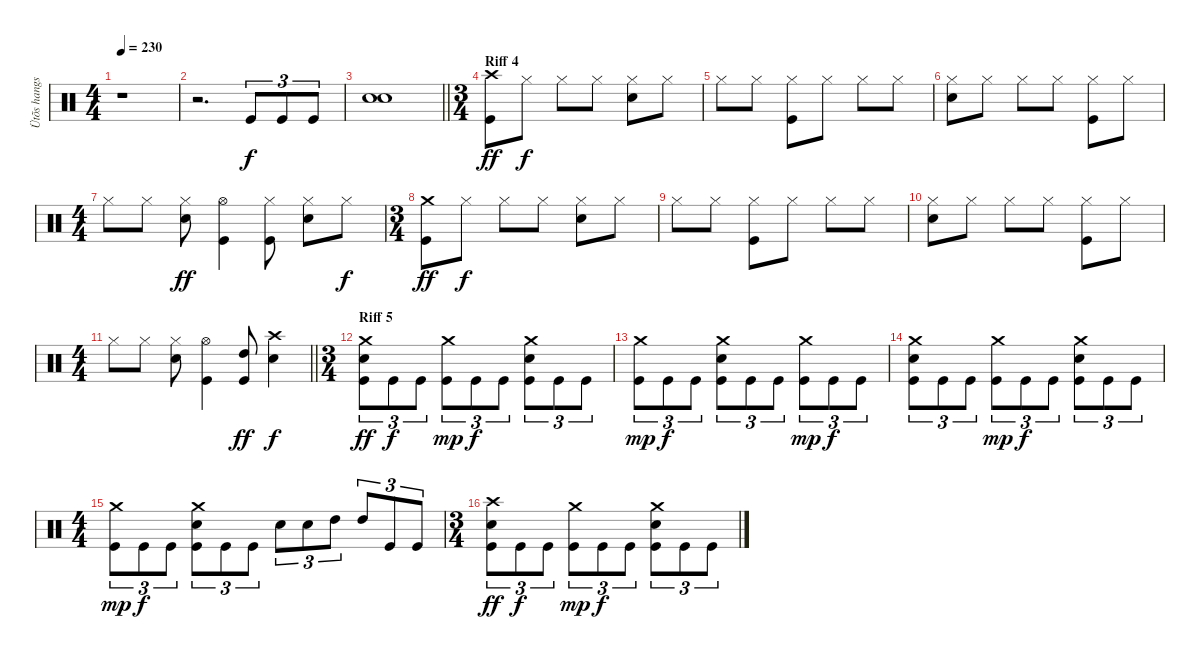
\track ("Ütõs hangszer" "Ütõs hangs") {instrument percussion}
\staff {score}
\articulation defaults
\ts (4 4)
\tempo 230
\clef neutral
\ks c
r.1{dy ff} |
r.2{d} "Kick (hit)".8{tu (3 2) dy f} "Kick (hit)".8{tu (3 2)} "Kick (hit)".8{tu (3 2)} |
\barLineRight lightlight
("Electric Snare (hit)" "Electric Snare (hit)").1{bu 240} |
\ts (3 4)
\section ("" "Riff 4")
("Crash high (hit)" "Kick (hit)").8{dy ff} "Hi-Hat (closed)".8{dy f} "Hi-Hat (closed)".8 "Hi-Hat (closed)".8 ("Hi-Hat (closed)" "Electric Snare (hit)").8 "Hi-Hat (closed)".8 |
"Hi-Hat (closed)".8 "Hi-Hat (closed)".8 ("Hi-Hat (closed)" "Kick (hit)").8 "Hi-Hat (closed)".8 "Hi-Hat (closed)".8 "Hi-Hat (closed)".8 |
("Hi-Hat (closed)" "Electric Snare (hit)").8 "Hi-Hat (closed)".8 "Hi-Hat (closed)".8 "Hi-Hat (closed)".8 ("Hi-Hat (closed)" "Kick (hit)").8 "Hi-Hat (closed)".8 |
\ts (4 4)
"Hi-Hat (closed)".8 "Hi-Hat (closed)".8 ("Hi-Hat (closed)" "Electric Snare (hit)").8{dy ff} ("Hi-Hat (open)" "Kick (hit)").4 ("Hi-Hat (closed)" "Kick (hit)").8 ("Hi-Hat (closed)" "Electric Snare (hit)").8 "Hi-Hat (closed)".8{dy f} |
\ts (3 4)
("Crash medium (hit)" "Kick (hit)").8{dy ff} "Hi-Hat (closed)".8{dy f} "Hi-Hat (closed)".8 "Hi-Hat (closed)".8 ("Hi-Hat (closed)" "Electric Snare (hit)").8 "Hi-Hat (closed)".8 |
"Hi-Hat (closed)".8 "Hi-Hat (closed)".8 ("Hi-Hat (closed)" "Kick (hit)").8 "Hi-Hat (closed)".8 "Hi-Hat (closed)".8 "Hi-Hat (closed)".8 |
("Hi-Hat (closed)" "Electric Snare (hit)").8 "Hi-Hat (closed)".8 "Hi-Hat (closed)".8 "Hi-Hat (closed)".8 ("Hi-Hat (closed)" "Kick (hit)").8 "Hi-Hat (closed)".8 |
\ts (4 4)
\barLineRight lightlight "Hi-Hat (closed)".8 "Hi-Hat (closed)".8
("Hi-Hat (closed)" "Electric Snare (hit)").8 ("Hi-Hat (open)" "Kick (hit)").4 ("High Tom (hit)" "Kick (hit)").8{dy ff} ("Crash high (hit)" "Electric Snare (hit)").4{dy f} |
\ts (3 4)
\section ("" "Riff 5")
("Crash medium (hit)" "Electric Snare (hit)" "Kick (hit)").8{tu (3 2) dy ff} "Kick (hit)".8{tu (3 2) dy f} "Kick (hit)".8{tu (3 2)} ("Crash medium (hit)" "Kick (hit)").8{tu (3 2) dy mp} "Kick (hit)".8{tu (3 2) dy f} "Kick (hit)".8{tu (3 2)} ("Crash medium (hit)" "Electric Snare (hit)" "Kick (hit)").8{tu (3 2)} "Kick (hit)".8{tu (3 2)} "Kick (hit)".8{tu (3 2)} |
("Crash medium (hit)" "Kick (hit)").8{tu (3 2) dy mp} "Kick (hit)".8{tu (3 2) dy f} "Kick (hit)".8{tu (3 2)} ("Crash medium (hit)" "Electric Snare (hit)" "Kick (hit)").8{tu (3 2)} "Kick (hit)".8{tu (3 2)} "Kick (hit)".8{tu (3 2)} ("Crash medium (hit)" "Kick (hit)").8{tu (3 2) dy mp} "Kick (hit)".8{tu (3 2) dy f} "Kick (hit)".8{tu (3 2)} |
("Crash medium (hit)" "Electric Snare (hit)" "Kick (hit)").8{tu (3 2)} "Kick (hit)".8{tu (3 2)} "Kick (hit)".8{tu (3 2)} ("Crash medium (hit)" "Kick (hit)").8{tu (3 2) dy mp} "Kick (hit)".8{tu (3 2) dy f} "Kick (hit)".8{tu (3 2)} ("Crash medium (hit)" "Electric Snare (hit)" "Kick (hit)").8{tu (3 2)} "Kick (hit)".8{tu (3 2)} "Kick (hit)".8{tu (3 2)} |
\ts (4 4)
("Crash medium (hit)" "Kick (hit)").8{tu (3 2) dy mp} "Kick (hit)".8{tu (3 2) dy f} "Kick (hit)".8{tu (3 2)} ("Crash medium (hit)" "Electric Snare (hit)" "Kick (hit)").8{tu (3 2)} "Kick (hit)".8{tu (3 2)} "Kick (hit)".8{tu (3 2)} "Electric Snare (hit)".8{tu (3 2)} "Electric Snare (hit)".8{tu (3 2)} "High Tom (hit)".8{tu (3 2)} "High Tom (hit)".8{tu (3 2)} "Kick (hit)".8{tu (3 2)} "Kick (hit)".8{tu (3 2)} |
\ts (3 4)
("Crash high (hit)" "Electric Snare (hit)" "Kick (hit)").8{tu (3 2) dy ff} "Kick (hit)".8{tu (3 2) dy f} "Kick (hit)".8{tu (3 2)} ("Crash medium (hit)" "Kick (hit)").8{tu (3 2) dy mp} "Kick (hit)".8{tu (3 2) dy f} "Kick (hit)".8{tu (3 2)} ("Crash medium (hit)" "Electric Snare (hit)" "Kick (hit)").8{tu (3 2)} "Kick (hit)".8{tu (3 2)} "Kick (hit)".8{tu (3 2)}
